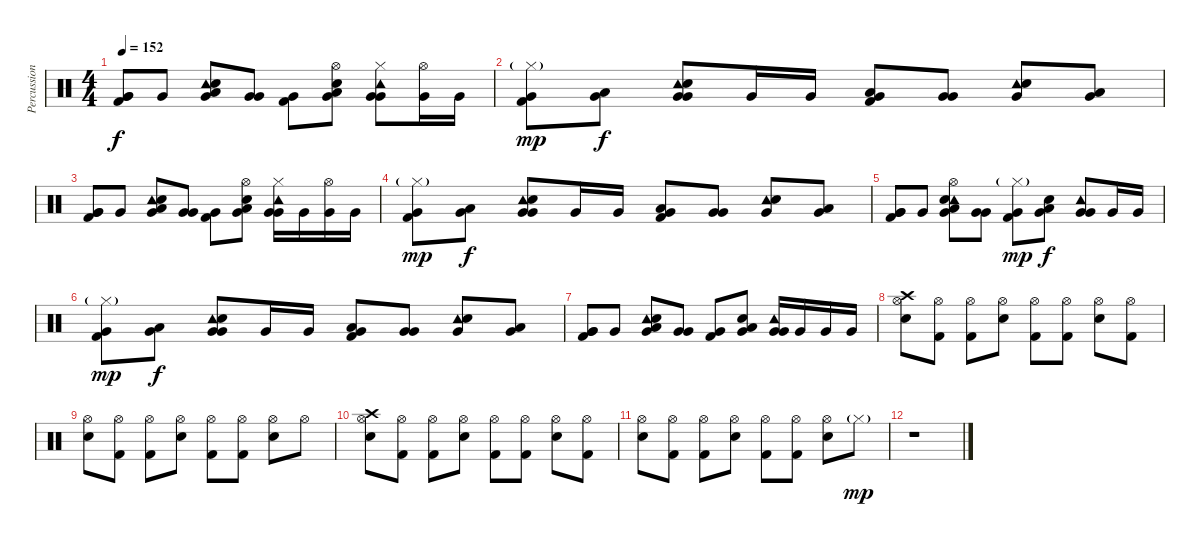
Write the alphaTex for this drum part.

\track ("Percussion" "Percussion") {instrument percussion}
\staff {score}
\articulation defaults
\ts (4 4)
\tempo 152
\clef neutral
\ks c
("Very Low Tom (hit)" "Very Low Tom (hit)" "Kick (hit) 2").8{dy f} "Very Low Tom (hit)".8 ("Very Low Tom (hit)" "Tambourine (hit)" "Low Tom (hit)" "Snare (hit) 2").8 ("Very Low Tom (hit)" "Very Low Tom (hit)").8 ("Very Low Tom (hit)" "Kick (hit) 2").8 ("Very Low Tom (hit)" "Low Tom (hit)" "Snare (hit) 2" "Hi-Hat (open)").8 ("Very Low Tom (hit)" "Tambourine (hit)" "Very Low Tom (hit)" "Hi-Hat (closed)").8 ("Very Low Tom (hit)" "Hi-Hat (open)").16 "Very Low Tom (hit)".16 |
("Very Low Tom (hit)" "Hi-Hat (closed)"{g} "Kick (hit) 2").8{dy mp} ("Very Low Tom (hit)" "Low Tom (hit)").8{dy f} ("Very Low Tom (hit)" "Tambourine (hit)" "Very Low Tom (hit)" "Snare (hit) 2").8 "Very Low Tom (hit)".16 "Very Low Tom (hit)".16 ("Very Low Tom (hit)" "Low Tom (hit)" "Kick (hit) 2").8 ("Very Low Tom (hit)" "Very Low Tom (hit)").8 ("Very Low Tom (hit)" "Tambourine (hit)" "Snare (hit) 2").8 ("Very Low Tom (hit)" "Low Tom (hit)").8 |
("Very Low Tom (hit)" "Very Low Tom (hit)" "Kick (hit) 2").8 "Very Low Tom (hit)".8 ("Very Low Tom (hit)" "Tambourine (hit)" "Low Tom (hit)" "Snare (hit) 2").8 ("Very Low Tom (hit)" "Very Low Tom (hit)").8 ("Very Low Tom (hit)" "Kick (hit) 2").8 ("Very Low Tom (hit)" "Low Tom (hit)" "Snare (hit) 2" "Hi-Hat (open)").8 ("Very Low Tom (hit)" "Tambourine (hit)" "Very Low Tom (hit)" "Hi-Hat (closed)").16 "Very Low Tom (hit)".16 ("Very Low Tom (hit)" "Hi-Hat (open)").16 "Very Low Tom (hit)".16 |
("Very Low Tom (hit)" "Hi-Hat (closed)"{g} "Kick (hit) 2").8{dy mp} ("Very Low Tom (hit)" "Low Tom (hit)").8{dy f} ("Very Low Tom (hit)" "Tambourine (hit)" "Very Low Tom (hit)" "Snare (hit) 2").8 "Very Low Tom (hit)".16 "Very Low Tom (hit)".16 ("Very Low Tom (hit)" "Low Tom (hit)" "Kick (hit) 2").8 ("Very Low Tom (hit)" "Very Low Tom (hit)").8 ("Very Low Tom (hit)" "Tambourine (hit)" "Snare (hit) 2").8 ("Very Low Tom (hit)" "Low Tom (hit)").8 |
("Very Low Tom (hit)" "Very Low Tom (hit)" "Kick (hit) 2").8 "Very Low Tom (hit)".8 ("Very Low Tom (hit)" "Tambourine (hit)" "Low Tom (hit)" "Snare (hit) 2" "Hi-Hat (open)").8 ("Very Low Tom (hit)" "Very Low Tom (hit)").8 ("Very Low Tom (hit)" "Hi-Hat (closed)"{g} "Kick (hit) 2").8{dy mp} ("Very Low Tom (hit)" "Low Tom (hit)" "Snare (hit) 2").8{dy f} ("Very Low Tom (hit)" "Tambourine (hit)" "Very Low Tom (hit)").8 "Very Low Tom (hit)".16 "Very Low Tom (hit)".16 |
("Very Low Tom (hit)" "Hi-Hat (closed)"{g} "Kick (hit) 2").8{dy mp} ("Very Low Tom (hit)" "Low Tom (hit)").8{dy f} ("Very Low Tom (hit)" "Tambourine (hit)" "Very Low Tom (hit)" "Snare (hit) 2").8 "Very Low Tom (hit)".16 "Very Low Tom (hit)".16 ("Very Low Tom (hit)" "Low Tom (hit)" "Kick (hit) 2").8 ("Very Low Tom (hit)" "Very Low Tom (hit)").8 ("Very Low Tom (hit)" "Tambourine (hit)" "Snare (hit) 2").8 ("Very Low Tom (hit)" "Low Tom (hit)").8 |
("Very Low Tom (hit)" "Very Low Tom (hit)" "Kick (hit) 2").8 "Very Low Tom (hit)".8 ("Very Low Tom (hit)" "Tambourine (hit)" "Low Tom (hit)" "Snare (hit) 2").8 ("Very Low Tom (hit)" "Very Low Tom (hit)").8 ("Very Low Tom (hit)" "Kick (hit) 2").8 ("Very Low Tom (hit)" "Low Tom (hit)" "Snare (hit) 2").8 ("Very Low Tom (hit)" "Tambourine (hit)" "Very Low Tom (hit)").16 "Very Low Tom (hit)".16 "Very Low Tom (hit)".16 "Very Low Tom (hit)".16 |
("Crash high (hit)" "Hi-Hat (open)" "Snare (hit) 2").8 ("Hi-Hat (open)" "Kick (hit) 2").8 ("Hi-Hat (open)" "Kick (hit) 2").8 ("Hi-Hat (open)" "Snare (hit) 2").8 ("Hi-Hat (open)" "Kick (hit) 2").8 ("Hi-Hat (open)" "Kick (hit) 2").8 ("Hi-Hat (open)" "Snare (hit) 2").8 ("Hi-Hat (open)" "Kick (hit) 2").8 |
("Hi-Hat (open)" "Snare (hit) 2").8 ("Hi-Hat (open)" "Kick (hit) 2").8 ("Hi-Hat (open)" "Kick (hit) 2").8 ("Hi-Hat (open)" "Snare (hit) 2").8 ("Hi-Hat (open)" "Kick (hit) 2").8 ("Hi-Hat (open)" "Kick (hit) 2").8 ("Hi-Hat (open)" "Snare (hit) 2").8 "Hi-Hat (open)".8 |
("Crash high (hit)" "Hi-Hat (open)" "Snare (hit) 2").8 ("Hi-Hat (open)" "Kick (hit) 2").8 ("Hi-Hat (open)" "Kick (hit) 2").8 ("Hi-Hat (open)" "Snare (hit) 2").8 ("Hi-Hat (open)" "Kick (hit) 2").8 ("Hi-Hat (open)" "Kick (hit) 2").8 ("Hi-Hat (open)" "Snare (hit) 2").8 ("Hi-Hat (open)" "Kick (hit) 2").8 |
("Hi-Hat (open)" "Snare (hit) 2").8 ("Hi-Hat (open)" "Kick (hit) 2").8 ("Hi-Hat (open)" "Kick (hit) 2").8 ("Hi-Hat (open)" "Snare (hit) 2").8 ("Hi-Hat (open)" "Kick (hit) 2").8 ("Hi-Hat (open)" "Kick (hit) 2").8 ("Hi-Hat (open)" "Snare (hit) 2").8 "Hi-Hat (closed)"{g}.8{dy mp} |
r.1
